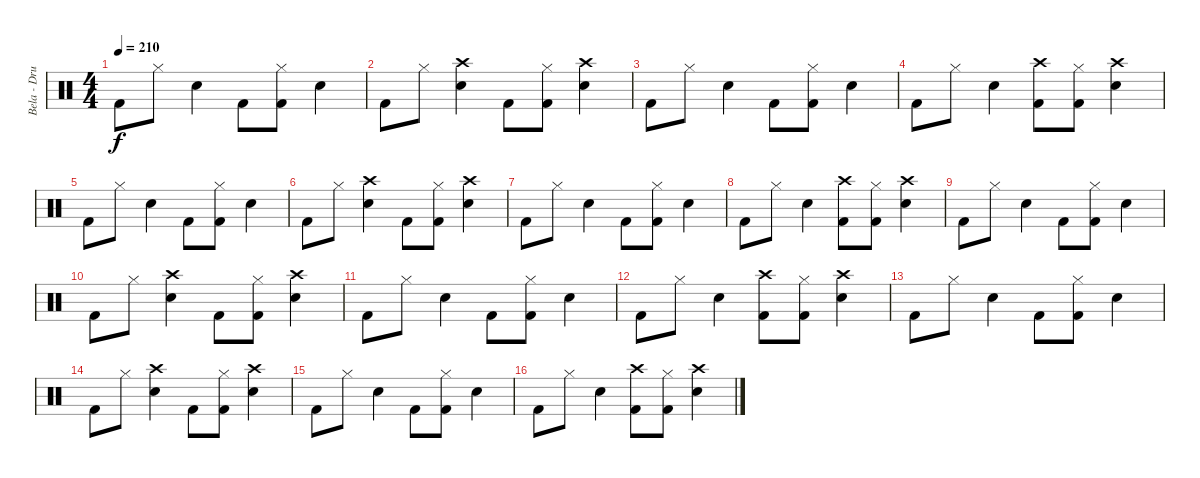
\track ("Bela - Drums" "Bela - Dru") {instrument percussion}
\staff {score}
\articulation defaults
\ts (4 4)
\tempo 210
\clef neutral
\ks c "Kick (hit) 2".8{dy f} "Hi-Hat (closed)".8 "Electric Snare (hit)".4 "Kick (hit) 2".8
("Hi-Hat (closed)" "Kick (hit) 2").8 "Electric Snare (hit)".4 |
"Kick (hit) 2".8 "Hi-Hat (closed)".8 ("Crash high (hit)" "Electric Snare (hit)").4 "Kick (hit) 2".8 ("Hi-Hat (closed)" "Kick (hit) 2").8 ("Crash high (hit)" "Electric Snare (hit)").4 |
"Kick (hit) 2".8 "Hi-Hat (closed)".8 "Electric Snare (hit)".4 "Kick (hit) 2".8 ("Hi-Hat (closed)" "Kick (hit) 2").8 "Electric Snare (hit)".4 |
"Kick (hit) 2".8 "Hi-Hat (closed)".8 "Electric Snare (hit)".4 ("Crash high (hit)" "Kick (hit) 2").8 ("Hi-Hat (closed)" "Kick (hit) 2").8 ("Crash high (hit)" "Electric Snare (hit)").4 |
"Kick (hit) 2".8 "Hi-Hat (closed)".8 "Electric Snare (hit)".4 "Kick (hit) 2".8 ("Hi-Hat (closed)" "Kick (hit) 2").8 "Electric Snare (hit)".4 |
"Kick (hit) 2".8 "Hi-Hat (closed)".8 ("Crash high (hit)" "Electric Snare (hit)").4 "Kick (hit) 2".8 ("Hi-Hat (closed)" "Kick (hit) 2").8 ("Crash high (hit)" "Electric Snare (hit)").4 |
"Kick (hit) 2".8 "Hi-Hat (closed)".8 "Electric Snare (hit)".4 "Kick (hit) 2".8 ("Hi-Hat (closed)" "Kick (hit) 2").8 "Electric Snare (hit)".4 |
"Kick (hit) 2".8 "Hi-Hat (closed)".8 "Electric Snare (hit)".4 ("Crash high (hit)" "Kick (hit) 2").8 ("Hi-Hat (closed)" "Kick (hit) 2").8 ("Crash high (hit)" "Electric Snare (hit)").4 |
"Kick (hit) 2".8 "Hi-Hat (closed)".8 "Electric Snare (hit)".4 "Kick (hit) 2".8 ("Hi-Hat (closed)" "Kick (hit) 2").8 "Electric Snare (hit)".4 |
"Kick (hit) 2".8 "Hi-Hat (closed)".8 ("Crash high (hit)" "Electric Snare (hit)").4 "Kick (hit) 2".8 ("Hi-Hat (closed)" "Kick (hit) 2").8 ("Crash high (hit)" "Electric Snare (hit)").4 |
"Kick (hit) 2".8 "Hi-Hat (closed)".8 "Electric Snare (hit)".4 "Kick (hit) 2".8 ("Hi-Hat (closed)" "Kick (hit) 2").8 "Electric Snare (hit)".4 |
"Kick (hit) 2".8 "Hi-Hat (closed)".8 "Electric Snare (hit)".4 ("Crash high (hit)" "Kick (hit) 2").8 ("Hi-Hat (closed)" "Kick (hit) 2").8 ("Crash high (hit)" "Electric Snare (hit)").4 |
"Kick (hit) 2".8 "Hi-Hat (closed)".8 "Electric Snare (hit)".4 "Kick (hit) 2".8 ("Hi-Hat (closed)" "Kick (hit) 2").8 "Electric Snare (hit)".4 |
"Kick (hit) 2".8 "Hi-Hat (closed)".8 ("Crash high (hit)" "Electric Snare (hit)").4 "Kick (hit) 2".8 ("Hi-Hat (closed)" "Kick (hit) 2").8 ("Crash high (hit)" "Electric Snare (hit)").4 |
"Kick (hit) 2".8 "Hi-Hat (closed)".8 "Electric Snare (hit)".4 "Kick (hit) 2".8 ("Hi-Hat (closed)" "Kick (hit) 2").8 "Electric Snare (hit)".4 |
"Kick (hit) 2".8 "Hi-Hat (closed)".8 "Electric Snare (hit)".4 ("Crash high (hit)" "Kick (hit) 2").8 ("Hi-Hat (closed)" "Kick (hit) 2").8 ("Crash high (hit)" "Electric Snare (hit)").4
